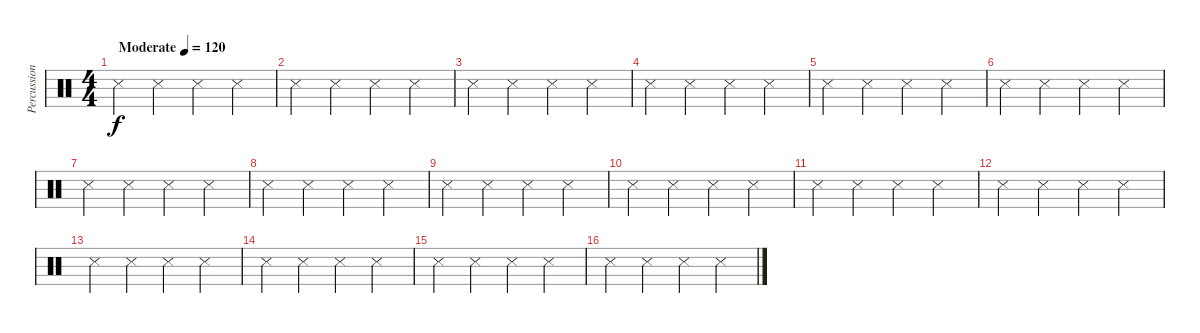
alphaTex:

\track ("Percussion" "Percussion") {instrument percussion}
\staff {score}
\articulation defaults
\ts (4 4)
\tempo (120 "Moderate")
\clef neutral
\ks c "Metronome (hit)".4{dy f} "Snare (side stick) 3".4 "Snare (side stick) 3".4 "Snare (side stick) 3".4
|
"Metronome (hit)".4 "Snare (side stick) 3".4 "Snare (side stick) 3".4 "Snare (side stick) 3".4 |
"Metronome (hit)".4 "Snare (side stick) 3".4 "Snare (side stick) 3".4 "Snare (side stick) 3".4 |
"Metronome (hit)".4 "Snare (side stick) 3".4 "Snare (side stick) 3".4 "Snare (side stick) 3".4 |
"Metronome (hit)".4 "Snare (side stick) 3".4 "Snare (side stick) 3".4 "Snare (side stick) 3".4 |
"Metronome (hit)".4 "Snare (side stick) 3".4 "Snare (side stick) 3".4 "Snare (side stick) 3".4 |
"Metronome (hit)".4 "Snare (side stick) 3".4 "Snare (side stick) 3".4 "Snare (side stick) 3".4 |
"Metronome (hit)".4 "Snare (side stick) 3".4 "Snare (side stick) 3".4 "Snare (side stick) 3".4 |
"Metronome (hit)".4 "Snare (side stick) 3".4 "Snare (side stick) 3".4 "Snare (side stick) 3".4 |
"Metronome (hit)".4 "Snare (side stick) 3".4 "Snare (side stick) 3".4 "Snare (side stick) 3".4 |
"Metronome (hit)".4 "Snare (side stick) 3".4 "Snare (side stick) 3".4 "Snare (side stick) 3".4 |
"Metronome (hit)".4 "Snare (side stick) 3".4 "Snare (side stick) 3".4 "Snare (side stick) 3".4 |
"Metronome (hit)".4{volume 0} "Snare (side stick) 3".4 "Snare (side stick) 3".4 "Snare (side stick) 3".4 |
"Metronome (hit)".4 "Snare (side stick) 3".4 "Snare (side stick) 3".4 "Snare (side stick) 3".4 |
"Metronome (hit)".4 "Snare (side stick) 3".4 "Snare (side stick) 3".4 "Snare (side stick) 3".4 |
"Metronome (hit)".4 "Snare (side stick) 3".4 "Snare (side stick) 3".4 "Snare (side stick) 3".4
